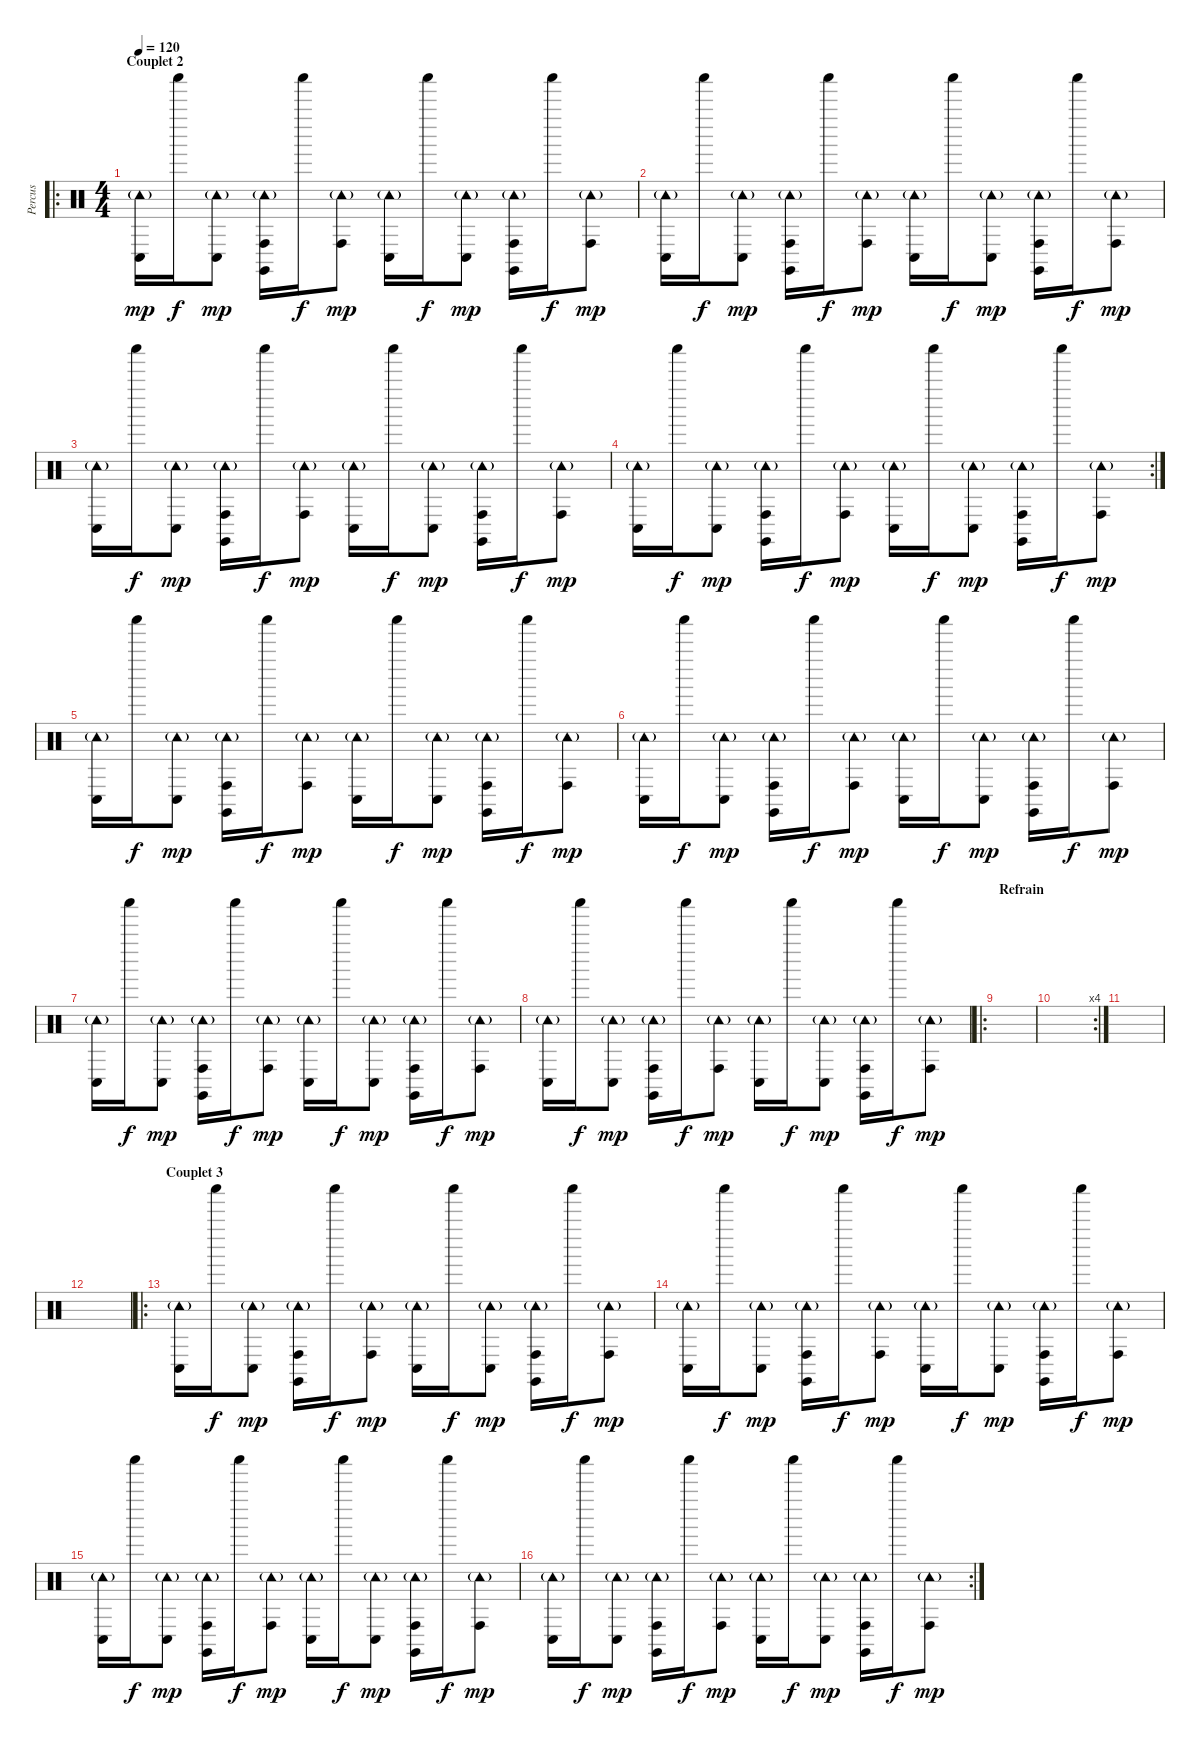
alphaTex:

\track ("Percus" "Percus") {instrument percussion}
\staff {score}
\articulation defaults
\ro
\ts (4 4)
\section ("" "Couplet 2")
\tempo 120
\clef neutral
\ks c
("Conga low (hit)" "Tambourine (hit)"{g}).16{dy mp} "Shaker (hit)".16{dy f} ("Conga low (hit)" "Tambourine (hit)"{g}).8{dy mp} ("Conga high (hit)" "Claves (hit)" "Tambourine (hit)"{g}).16 "Shaker (hit)".16{dy f} ("Conga high (hit)" "Tambourine (hit)"{g}).8{dy mp} ("Conga low (hit)" "Tambourine (hit)"{g}).16 "Shaker (hit)".16{dy f} ("Conga low (hit)" "Tambourine (hit)"{g}).8{dy mp} ("Conga high (hit)" "Claves (hit)" "Tambourine (hit)"{g}).16 "Shaker (hit)".16{dy f} ("Conga high (hit)" "Tambourine (hit)"{g}).8{dy mp} |
("Conga low (hit)" "Tambourine (hit)"{g}).16 "Shaker (hit)".16{dy f} ("Conga low (hit)" "Tambourine (hit)"{g}).8{dy mp} ("Conga high (hit)" "Claves (hit)" "Tambourine (hit)"{g}).16 "Shaker (hit)".16{dy f} ("Conga high (hit)" "Tambourine (hit)"{g}).8{dy mp} ("Conga low (hit)" "Tambourine (hit)"{g}).16 "Shaker (hit)".16{dy f} ("Conga low (hit)" "Tambourine (hit)"{g}).8{dy mp} ("Conga high (hit)" "Claves (hit)" "Tambourine (hit)"{g}).16 "Shaker (hit)".16{dy f} ("Conga high (hit)" "Tambourine (hit)"{g}).8{dy mp} |
("Conga low (hit)" "Tambourine (hit)"{g}).16 "Shaker (hit)".16{dy f} ("Conga low (hit)" "Tambourine (hit)"{g}).8{dy mp} ("Conga high (hit)" "Claves (hit)" "Tambourine (hit)"{g}).16 "Shaker (hit)".16{dy f} ("Conga high (hit)" "Tambourine (hit)"{g}).8{dy mp} ("Conga low (hit)" "Tambourine (hit)"{g}).16 "Shaker (hit)".16{dy f} ("Conga low (hit)" "Tambourine (hit)"{g}).8{dy mp} ("Conga high (hit)" "Claves (hit)" "Tambourine (hit)"{g}).16 "Shaker (hit)".16{dy f} ("Conga high (hit)" "Tambourine (hit)"{g}).8{dy mp} |
\rc 2
("Conga low (hit)" "Tambourine (hit)"{g}).16 "Shaker (hit)".16{dy f} ("Conga low (hit)" "Tambourine (hit)"{g}).8{dy mp} ("Conga high (hit)" "Claves (hit)" "Tambourine (hit)"{g}).16 "Shaker (hit)".16{dy f} ("Conga high (hit)" "Tambourine (hit)"{g}).8{dy mp} ("Conga low (hit)" "Tambourine (hit)"{g}).16 "Shaker (hit)".16{dy f} ("Conga low (hit)" "Tambourine (hit)"{g}).8{dy mp} ("Conga high (hit)" "Claves (hit)" "Tambourine (hit)"{g}).16 "Shaker (hit)".16{dy f} ("Conga high (hit)" "Tambourine (hit)"{g}).8{dy mp} |
("Conga low (hit)" "Tambourine (hit)"{g}).16 "Shaker (hit)".16{dy f} ("Conga low (hit)" "Tambourine (hit)"{g}).8{dy mp} ("Conga high (hit)" "Claves (hit)" "Tambourine (hit)"{g}).16 "Shaker (hit)".16{dy f} ("Conga high (hit)" "Tambourine (hit)"{g}).8{dy mp} ("Conga low (hit)" "Tambourine (hit)"{g}).16 "Shaker (hit)".16{dy f} ("Conga low (hit)" "Tambourine (hit)"{g}).8{dy mp} ("Conga high (hit)" "Claves (hit)" "Tambourine (hit)"{g}).16 "Shaker (hit)".16{dy f} ("Conga high (hit)" "Tambourine (hit)"{g}).8{dy mp} |
("Conga low (hit)" "Tambourine (hit)"{g}).16 "Shaker (hit)".16{dy f} ("Conga low (hit)" "Tambourine (hit)"{g}).8{dy mp} ("Conga high (hit)" "Claves (hit)" "Tambourine (hit)"{g}).16 "Shaker (hit)".16{dy f} ("Conga high (hit)" "Tambourine (hit)"{g}).8{dy mp} ("Conga low (hit)" "Tambourine (hit)"{g}).16 "Shaker (hit)".16{dy f} ("Conga low (hit)" "Tambourine (hit)"{g}).8{dy mp} ("Conga high (hit)" "Claves (hit)" "Tambourine (hit)"{g}).16 "Shaker (hit)".16{dy f} ("Conga high (hit)" "Tambourine (hit)"{g}).8{dy mp} |
("Conga low (hit)" "Tambourine (hit)"{g}).16 "Shaker (hit)".16{dy f} ("Conga low (hit)" "Tambourine (hit)"{g}).8{dy mp} ("Conga high (hit)" "Claves (hit)" "Tambourine (hit)"{g}).16 "Shaker (hit)".16{dy f} ("Conga high (hit)" "Tambourine (hit)"{g}).8{dy mp} ("Conga low (hit)" "Tambourine (hit)"{g}).16 "Shaker (hit)".16{dy f} ("Conga low (hit)" "Tambourine (hit)"{g}).8{dy mp} ("Conga high (hit)" "Claves (hit)" "Tambourine (hit)"{g}).16 "Shaker (hit)".16{dy f} ("Conga high (hit)" "Tambourine (hit)"{g}).8{dy mp} |
("Conga low (hit)" "Tambourine (hit)"{g}).16 "Shaker (hit)".16{dy f} ("Conga low (hit)" "Tambourine (hit)"{g}).8{dy mp} ("Conga high (hit)" "Claves (hit)" "Tambourine (hit)"{g}).16 "Shaker (hit)".16{dy f} ("Conga high (hit)" "Tambourine (hit)"{g}).8{dy mp} ("Conga low (hit)" "Tambourine (hit)"{g}).16 "Shaker (hit)".16{dy f} ("Conga low (hit)" "Tambourine (hit)"{g}).8{dy mp} ("Conga high (hit)" "Claves (hit)" "Tambourine (hit)"{g}).16 "Shaker (hit)".16{dy f} ("Conga high (hit)" "Tambourine (hit)"{g}).8{dy mp} |
\ro
\section ("" "Refrain")
|
\rc 4
|
|
|
\ro
\section ("" "Couplet 3")
("Conga low (hit)" "Tambourine (hit)"{g}).16 "Shaker (hit)".16{dy f} ("Conga low (hit)" "Tambourine (hit)"{g}).8{dy mp} ("Conga high (hit)" "Claves (hit)" "Tambourine (hit)"{g}).16 "Shaker (hit)".16{dy f} ("Conga high (hit)" "Tambourine (hit)"{g}).8{dy mp} ("Conga low (hit)" "Tambourine (hit)"{g}).16 "Shaker (hit)".16{dy f} ("Conga low (hit)" "Tambourine (hit)"{g}).8{dy mp} ("Conga high (hit)" "Claves (hit)" "Tambourine (hit)"{g}).16 "Shaker (hit)".16{dy f} ("Conga high (hit)" "Tambourine (hit)"{g}).8{dy mp} |
("Conga low (hit)" "Tambourine (hit)"{g}).16 "Shaker (hit)".16{dy f} ("Conga low (hit)" "Tambourine (hit)"{g}).8{dy mp} ("Conga high (hit)" "Claves (hit)" "Tambourine (hit)"{g}).16 "Shaker (hit)".16{dy f} ("Conga high (hit)" "Tambourine (hit)"{g}).8{dy mp} ("Conga low (hit)" "Tambourine (hit)"{g}).16 "Shaker (hit)".16{dy f} ("Conga low (hit)" "Tambourine (hit)"{g}).8{dy mp} ("Conga high (hit)" "Claves (hit)" "Tambourine (hit)"{g}).16 "Shaker (hit)".16{dy f} ("Conga high (hit)" "Tambourine (hit)"{g}).8{dy mp} |
("Conga low (hit)" "Tambourine (hit)"{g}).16 "Shaker (hit)".16{dy f} ("Conga low (hit)" "Tambourine (hit)"{g}).8{dy mp} ("Conga high (hit)" "Claves (hit)" "Tambourine (hit)"{g}).16 "Shaker (hit)".16{dy f} ("Conga high (hit)" "Tambourine (hit)"{g}).8{dy mp} ("Conga low (hit)" "Tambourine (hit)"{g}).16 "Shaker (hit)".16{dy f} ("Conga low (hit)" "Tambourine (hit)"{g}).8{dy mp} ("Conga high (hit)" "Claves (hit)" "Tambourine (hit)"{g}).16 "Shaker (hit)".16{dy f} ("Conga high (hit)" "Tambourine (hit)"{g}).8{dy mp} |
\rc 2
("Conga low (hit)" "Tambourine (hit)"{g}).16 "Shaker (hit)".16{dy f} ("Conga low (hit)" "Tambourine (hit)"{g}).8{dy mp} ("Conga high (hit)" "Claves (hit)" "Tambourine (hit)"{g}).16 "Shaker (hit)".16{dy f} ("Conga high (hit)" "Tambourine (hit)"{g}).8{dy mp} ("Conga low (hit)" "Tambourine (hit)"{g}).16 "Shaker (hit)".16{dy f} ("Conga low (hit)" "Tambourine (hit)"{g}).8{dy mp} ("Conga high (hit)" "Claves (hit)" "Tambourine (hit)"{g}).16 "Shaker (hit)".16{dy f} ("Conga high (hit)" "Tambourine (hit)"{g}).8{dy mp}
